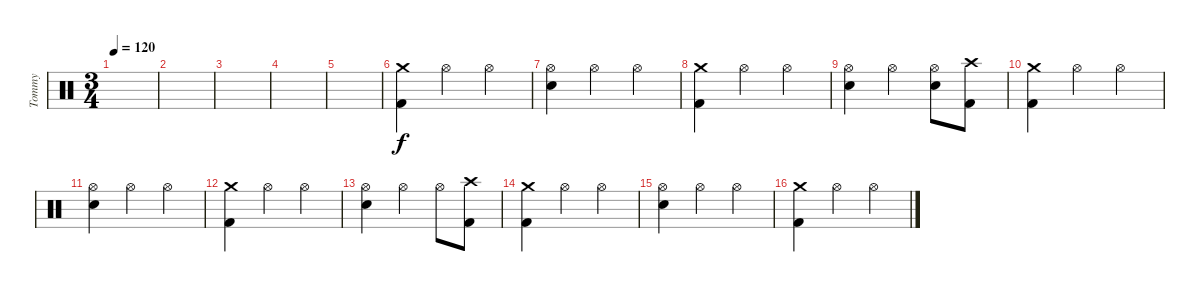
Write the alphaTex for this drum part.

\track ("Tommy" "Tommy") {instrument percussion}
\staff {score}
\articulation defaults
\ts (3 4)
\tempo 120
\clef neutral
\ks c
|
|
|
|
|
("Crash medium (hit)" "Kick (hit) 2").4 "Hi-Hat (open)".4 "Hi-Hat (open)".4 |
("Hi-Hat (open)" "Electric Snare (hit)").4 "Hi-Hat (open)".4 "Hi-Hat (open)".4 |
("Crash medium (hit)" "Kick (hit) 2").4 "Hi-Hat (open)".4 "Hi-Hat (open)".4 |
("Hi-Hat (open)" "Electric Snare (hit)").4 "Hi-Hat (open)".4 ("Hi-Hat (open)" "Electric Snare (hit)").8 ("Crash high (hit)" "Kick (hit) 2").8 |
("Crash medium (hit)" "Kick (hit) 2").4 "Hi-Hat (open)".4 "Hi-Hat (open)".4 |
("Hi-Hat (open)" "Electric Snare (hit)").4 "Hi-Hat (open)".4 "Hi-Hat (open)".4 |
("Crash medium (hit)" "Kick (hit) 2").4 "Hi-Hat (open)".4 "Hi-Hat (open)".4 |
("Hi-Hat (open)" "Electric Snare (hit)").4 "Hi-Hat (open)".4 "Hi-Hat (open)".8 ("Crash high (hit)" "Kick (hit) 2").8 |
("Crash medium (hit)" "Kick (hit) 2").4 "Hi-Hat (open)".4 "Hi-Hat (open)".4 |
("Hi-Hat (open)" "Electric Snare (hit)").4 "Hi-Hat (open)".4 "Hi-Hat (open)".4 |
("Crash medium (hit)" "Kick (hit) 2").4 "Hi-Hat (open)".4 "Hi-Hat (open)".4
